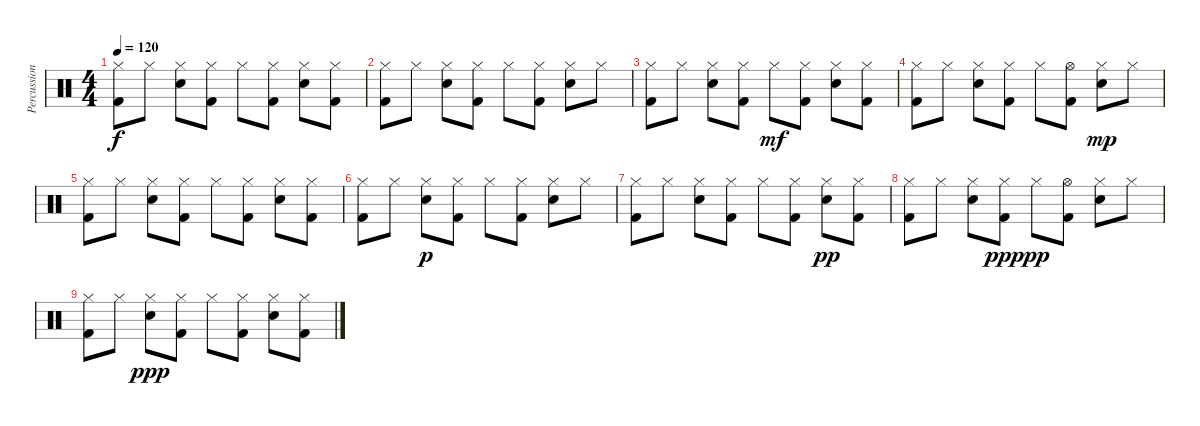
\track ("Percussions" "Percussion") {instrument percussion}
\staff {score}
\articulation defaults
\ts (4 4)
\tempo 120
\clef neutral
\ks c
("Hi-Hat (closed)" "Kick (hit) 2").8{dy f} "Hi-Hat (closed)".8 ("Hi-Hat (closed)" "Electric Snare (hit)").8 ("Hi-Hat (closed)" "Kick (hit) 2").8 "Hi-Hat (closed)".8 ("Hi-Hat (closed)" "Kick (hit) 2").8 ("Hi-Hat (closed)" "Electric Snare (hit)").8 ("Hi-Hat (closed)" "Kick (hit) 2").8 |
("Hi-Hat (closed)" "Kick (hit) 2").8 "Hi-Hat (closed)".8 ("Hi-Hat (closed)" "Electric Snare (hit)").8 ("Hi-Hat (closed)" "Kick (hit) 2").8 "Hi-Hat (closed)".8 ("Hi-Hat (closed)" "Kick (hit) 2").8 ("Hi-Hat (closed)" "Electric Snare (hit)").8 "Hi-Hat (closed)".8 |
("Hi-Hat (closed)" "Kick (hit) 2").8 "Hi-Hat (closed)".8 ("Hi-Hat (closed)" "Electric Snare (hit)").8 ("Hi-Hat (closed)" "Kick (hit) 2").8 "Hi-Hat (closed)".8{dy mf} ("Hi-Hat (closed)" "Kick (hit) 2").8 ("Hi-Hat (closed)" "Electric Snare (hit)").8 ("Hi-Hat (closed)" "Kick (hit) 2").8 |
("Hi-Hat (closed)" "Kick (hit) 2").8 "Hi-Hat (closed)".8 ("Hi-Hat (closed)" "Electric Snare (hit)").8 ("Hi-Hat (closed)" "Kick (hit) 2").8 "Hi-Hat (closed)".8 ("Hi-Hat (open)" "Kick (hit) 2").8 ("Hi-Hat (closed)" "Electric Snare (hit)").8{dy mp} "Hi-Hat (closed)".8 |
("Hi-Hat (closed)" "Kick (hit) 2").8 "Hi-Hat (closed)".8 ("Hi-Hat (closed)" "Electric Snare (hit)").8 ("Hi-Hat (closed)" "Kick (hit) 2").8 "Hi-Hat (closed)".8 ("Hi-Hat (closed)" "Kick (hit) 2").8 ("Hi-Hat (closed)" "Electric Snare (hit)").8 ("Hi-Hat (closed)" "Kick (hit) 2").8 |
("Hi-Hat (closed)" "Kick (hit) 2").8 "Hi-Hat (closed)".8 ("Hi-Hat (closed)" "Electric Snare (hit)").8{dy p} ("Hi-Hat (closed)" "Kick (hit) 2").8 "Hi-Hat (closed)".8 ("Hi-Hat (closed)" "Kick (hit) 2").8 ("Hi-Hat (closed)" "Electric Snare (hit)").8 "Hi-Hat (closed)".8 |
("Hi-Hat (closed)" "Kick (hit) 2").8 "Hi-Hat (closed)".8 ("Hi-Hat (closed)" "Electric Snare (hit)").8 ("Hi-Hat (closed)" "Kick (hit) 2").8 "Hi-Hat (closed)".8 ("Hi-Hat (closed)" "Kick (hit) 2").8 ("Hi-Hat (closed)" "Electric Snare (hit)").8{dy pp} ("Hi-Hat (closed)" "Kick (hit) 2").8 |
("Hi-Hat (closed)" "Kick (hit) 2").8 "Hi-Hat (closed)".8 ("Hi-Hat (closed)" "Electric Snare (hit)").8 ("Hi-Hat (closed)" "Kick (hit) 2").8{dy ppp} "Hi-Hat (closed)".8{dy pp} ("Hi-Hat (open)" "Kick (hit) 2").8 ("Hi-Hat (closed)" "Electric Snare (hit)").8 "Hi-Hat (closed)".8 |
("Hi-Hat (closed)" "Kick (hit) 2").8 "Hi-Hat (closed)".8 ("Hi-Hat (closed)" "Electric Snare (hit)").8{dy ppp} ("Hi-Hat (closed)" "Kick (hit) 2").8 "Hi-Hat (closed)".8 ("Hi-Hat (closed)" "Kick (hit) 2").8 ("Hi-Hat (closed)" "Electric Snare (hit)").8 ("Hi-Hat (closed)" "Kick (hit) 2").8
